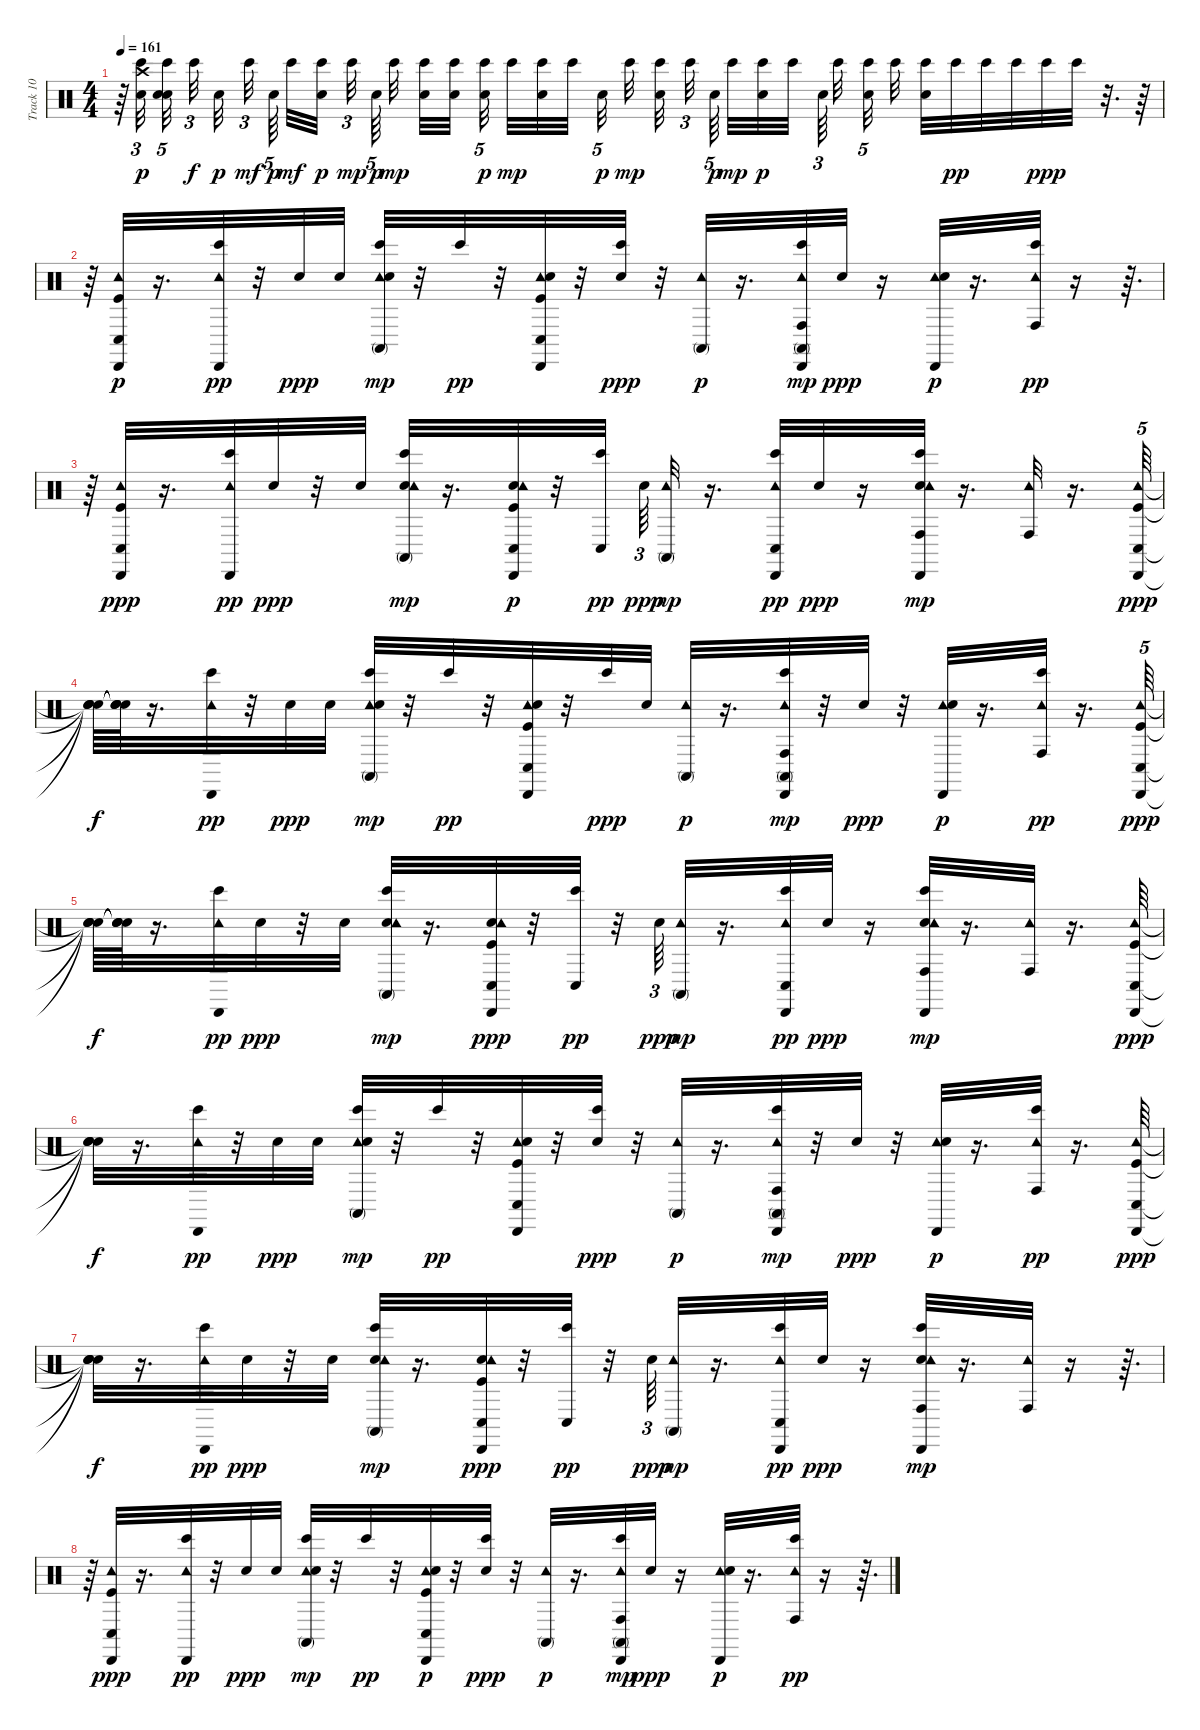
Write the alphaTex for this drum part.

\track ("Track 10" "Track 10") {instrument percussion}
\staff {score}
\articulation defaults
\ts (4 4)
\tempo 161
\clef neutral
\ks c
r.64{dy p} ("Crash high (hit)" "Electric Snare (hit)" "Bongo High (hit)").32{tu (3 2)} ("Electric Snare (hit)" "Bongo High (hit)" "Electric Snare (hit)").32{tu (5 4)} "Bongo High (hit)".32{tu (3 2) dy f beam splitsecondary} "Electric Snare (hit)".32{dy p beam splitsecondary} "Bongo High (hit)".32{tu (3 2) dy mf} "Electric Snare (hit)".64{tu (5 4) dy p beam splitsecondary} "Bongo High (hit)".32{dy mf} ("Bongo High (hit)" "Electric Snare (hit)").32{dy p beam splitsecondary} "Bongo High (hit)".32{tu (3 2) dy mp} "Electric Snare (hit)".64{tu (5 4) dy p beam splitsecondary} "Bongo High (hit)".32{dy mp} ("Electric Snare (hit)" "Bongo High (hit)").32 ("Electric Snare (hit)" "Bongo High (hit)").32{beam splitsecondary} ("Bongo High (hit)" "Electric Snare (hit)").32{tu (5 4) dy p beam splitsecondary} "Bongo High (hit)".32{dy mp} ("Electric Snare (hit)" "Bongo High (hit)").32 "Bongo High (hit)".32{beam splitsecondary} "Electric Snare (hit)".32{tu (5 4) dy p} "Bongo High (hit)".32{dy mp} ("Electric Snare (hit)" "Bongo High (hit)").32{beam splitsecondary} "Bongo High (hit)".32{tu (3 2)} "Electric Snare (hit)".64{tu (5 4) dy p beam splitsecondary} "Bongo High (hit)".32{dy mp} ("Bongo High (hit)" "Electric Snare (hit)").32{dy p} "Bongo High (hit)".32{beam splitsecondary} "Electric Snare (hit)".64{tu (3 2) beam splitsecondary} "Bongo High (hit)".32{beam splitsecondary} ("Bongo High (hit)" "Electric Snare (hit)").32{tu (5 4)} "Bongo High (hit)".32 ("Electric Snare (hit)" "Bongo High (hit)").32 "Bongo High (hit)".32{dy pp} "Bongo High (hit)".32 "Bongo High (hit)".32 "Bongo High (hit)".32{dy ppp} "Bongo High (hit)".32 r.32{d} r.64 |
r.64 ("Cabasa (hit)" "Conga low (hit)" "Tambourine (hit)" "Kick (hit)").32{dy p} r.16{d} ("Tambourine (hit)" "Cabasa (hit)" "Bongo High (hit)").32{dy pp} r.32 "Electric Snare (hit)".32{dy ppp} "Electric Snare (hit)".32 ("Tambourine (hit)" "Bongo High (hit)" "Conga high (mute)" "Electric Snare (hit)").32{dy mp} r.32 "Bongo High (hit)".32{dy pp} r.32 ("Tambourine (hit)" "Conga low (hit)" "Cabasa (hit)" "Kick (hit)" "Electric Snare (hit)").32 r.32 ("Bongo High (hit)" "Electric Snare (hit)").32{dy ppp} r.32 ("Tambourine (hit)" "Conga high (mute)").32{dy p} r.16{d} ("Tambourine (hit)" "Cabasa (hit)" "Bongo High (hit)" "Conga high (mute)" "Conga high (hit)").32{dy mp} "Electric Snare (hit)".32{dy ppp} r.16 ("Tambourine (hit)" "Cabasa (hit)" "Electric Snare (hit)").32{dy p} r.16{d} ("Tambourine (hit)" "Conga high (hit)" "Bongo High (hit)").32{dy pp} r.16 r.64{d} |
r.64 ("Kick (hit)" "Tambourine (hit)" "Cabasa (hit)" "Conga low (hit)").32{dy ppp} r.16{d} ("Tambourine (hit)" "Cabasa (hit)" "Bongo High (hit)").32{dy pp} "Electric Snare (hit)".32{dy ppp} r.32 "Electric Snare (hit)".32 ("Electric Snare (hit)" "Tambourine (hit)" "Bongo High (hit)" "Conga high (mute)").32{dy mp} r.16{d} ("Electric Snare (hit)" "Tambourine (hit)" "Cabasa (hit)" "Conga low (hit)" "Kick (hit)").32{dy p} r.32 ("Bongo High (hit)" "Conga low (hit)").32{dy pp beam splitsecondary} "Electric Snare (hit)".64{tu (3 2) dy ppp} ("Tambourine (hit)" "Conga high (mute)").32{dy mp} r.16{d} ("Bongo High (hit)" "Tambourine (hit)" "Cabasa (hit)" "Conga low (hit)").32{dy pp} "Electric Snare (hit)".32{dy ppp} r.16 ("Electric Snare (hit)" "Bongo High (hit)" "Tambourine (hit)" "Cabasa (hit)" "Conga high (hit)").32{dy mp} r.16{d} ("Tambourine (hit)" "Conga high (hit)").32 r.16{d} ("Kick (hit)" "Tambourine (hit)" "Cabasa (hit)" "Conga low (hit)").64{tu (5 4) dy ppp} |
("Snare (hit)"{t} "Snare (hit)"{t} "Snare (hit)"{t} "Snare (hit)"{t}).64{dy f} ("Snare (hit)"{t} "Snare (hit)"{t} "Snare (hit)"{t} "Snare (hit)"{t}).64 r.16{d} ("Tambourine (hit)" "Cabasa (hit)" "Bongo High (hit)").32{dy pp} r.32 "Electric Snare (hit)".32{dy ppp} "Electric Snare (hit)".32 ("Tambourine (hit)" "Bongo High (hit)" "Conga high (mute)" "Electric Snare (hit)").32{dy mp} r.32 "Bongo High (hit)".32{dy pp} r.32 ("Tambourine (hit)" "Conga low (hit)" "Cabasa (hit)" "Kick (hit)" "Electric Snare (hit)").32 r.32 "Bongo High (hit)".32{dy ppp} "Electric Snare (hit)".32 ("Tambourine (hit)" "Conga high (mute)").32{dy p} r.16{d} ("Tambourine (hit)" "Cabasa (hit)" "Bongo High (hit)" "Conga high (mute)" "Conga high (hit)").32{dy mp} r.32 "Electric Snare (hit)".32{dy ppp} r.32 ("Tambourine (hit)" "Cabasa (hit)" "Electric Snare (hit)").32{dy p} r.16{d} ("Tambourine (hit)" "Conga high (hit)" "Bongo High (hit)").32{dy pp} r.16{d} ("Kick (hit)" "Tambourine (hit)" "Cabasa (hit)" "Conga low (hit)").64{tu (5 4) dy ppp} |
("Snare (hit)"{t} "Snare (hit)"{t} "Snare (hit)"{t} "Snare (hit)"{t}).64{dy f} ("Snare (hit)"{t} "Snare (hit)"{t} "Snare (hit)"{t} "Snare (hit)"{t}).64 r.16{d} ("Tambourine (hit)" "Cabasa (hit)" "Bongo High (hit)").32{dy pp} "Electric Snare (hit)".32{dy ppp} r.32 "Electric Snare (hit)".32 ("Electric Snare (hit)" "Tambourine (hit)" "Bongo High (hit)" "Conga high (mute)").32{dy mp} r.16{d} ("Kick (hit)" "Electric Snare (hit)" "Tambourine (hit)" "Cabasa (hit)" "Conga low (hit)").32{dy ppp} r.32 ("Bongo High (hit)" "Conga low (hit)").32{dy pp} r.32 "Electric Snare (hit)".64{tu (3 2) dy ppp} ("Tambourine (hit)" "Conga high (mute)").32{dy mp} r.16{d} ("Bongo High (hit)" "Tambourine (hit)" "Cabasa (hit)" "Conga low (hit)").32{dy pp} "Electric Snare (hit)".32{dy ppp} r.16 ("Electric Snare (hit)" "Bongo High (hit)" "Tambourine (hit)" "Cabasa (hit)" "Conga high (hit)").32{dy mp} r.16{d} ("Tambourine (hit)" "Conga high (hit)").32 r.16{d} ("Kick (hit)" "Tambourine (hit)" "Cabasa (hit)" "Conga low (hit)").64{dy ppp} |
("Snare (hit)"{t} "Snare (hit)"{t} "Snare (hit)"{t} "Snare (hit)"{t}).32{dy f} r.16{d} ("Tambourine (hit)" "Cabasa (hit)" "Bongo High (hit)").32{dy pp} r.32 "Electric Snare (hit)".32{dy ppp} "Electric Snare (hit)".32 ("Tambourine (hit)" "Bongo High (hit)" "Conga high (mute)" "Electric Snare (hit)").32{dy mp} r.32 "Bongo High (hit)".32{dy pp} r.32 ("Tambourine (hit)" "Conga low (hit)" "Cabasa (hit)" "Kick (hit)" "Electric Snare (hit)").32 r.32 ("Bongo High (hit)" "Electric Snare (hit)").32{dy ppp} r.32 ("Tambourine (hit)" "Conga high (mute)").32{dy p} r.16{d} ("Tambourine (hit)" "Cabasa (hit)" "Bongo High (hit)" "Conga high (mute)" "Conga high (hit)").32{dy mp} r.32 "Electric Snare (hit)".32{dy ppp} r.32 ("Tambourine (hit)" "Cabasa (hit)" "Electric Snare (hit)").32{dy p} r.16{d} ("Tambourine (hit)" "Conga high (hit)" "Bongo High (hit)").32{dy pp} r.16{d} ("Kick (hit)" "Tambourine (hit)" "Cabasa (hit)" "Conga low (hit)").64{dy ppp} |
("Snare (hit)"{t} "Snare (hit)"{t} "Snare (hit)"{t} "Snare (hit)"{t}).32{dy f} r.16{d} ("Tambourine (hit)" "Cabasa (hit)" "Bongo High (hit)").32{dy pp} "Electric Snare (hit)".32{dy ppp} r.32 "Electric Snare (hit)".32 ("Electric Snare (hit)" "Tambourine (hit)" "Bongo High (hit)" "Conga high (mute)").32{dy mp} r.16{d} ("Kick (hit)" "Electric Snare (hit)" "Tambourine (hit)" "Cabasa (hit)" "Conga low (hit)").32{dy ppp} r.32 ("Bongo High (hit)" "Conga low (hit)").32{dy pp} r.32 "Electric Snare (hit)".64{tu (3 2) dy ppp} ("Tambourine (hit)" "Conga high (mute)").32{dy mp} r.16{d} ("Bongo High (hit)" "Tambourine (hit)" "Cabasa (hit)" "Conga low (hit)").32{dy pp} "Electric Snare (hit)".32{dy ppp} r.16 ("Electric Snare (hit)" "Bongo High (hit)" "Tambourine (hit)" "Cabasa (hit)" "Conga high (hit)").32{dy mp} r.16{d} ("Tambourine (hit)" "Conga high (hit)").32 r.16 r.64{d} |
r.64 ("Kick (hit)" "Tambourine (hit)" "Cabasa (hit)" "Conga low (hit)").32{dy ppp} r.16{d} ("Tambourine (hit)" "Cabasa (hit)" "Bongo High (hit)").32{dy pp} r.32 "Electric Snare (hit)".32{dy ppp} "Electric Snare (hit)".32 ("Tambourine (hit)" "Bongo High (hit)" "Conga high (mute)" "Electric Snare (hit)").32{dy mp} r.32 "Bongo High (hit)".32{dy pp} r.32 ("Tambourine (hit)" "Conga low (hit)" "Cabasa (hit)" "Electric Snare (hit)" "Kick (hit)").32{dy p} r.32 ("Bongo High (hit)" "Electric Snare (hit)").32{dy ppp} r.32 ("Tambourine (hit)" "Conga high (mute)").32{dy p} r.16{d} ("Tambourine (hit)" "Cabasa (hit)" "Bongo High (hit)" "Conga high (mute)" "Conga high (hit)").32{dy mp} "Electric Snare (hit)".32{dy ppp} r.16 ("Tambourine (hit)" "Cabasa (hit)" "Electric Snare (hit)").32{dy p} r.16{d} ("Tambourine (hit)" "Conga high (hit)" "Bongo High (hit)").32{dy pp} r.16 r.64{d}
